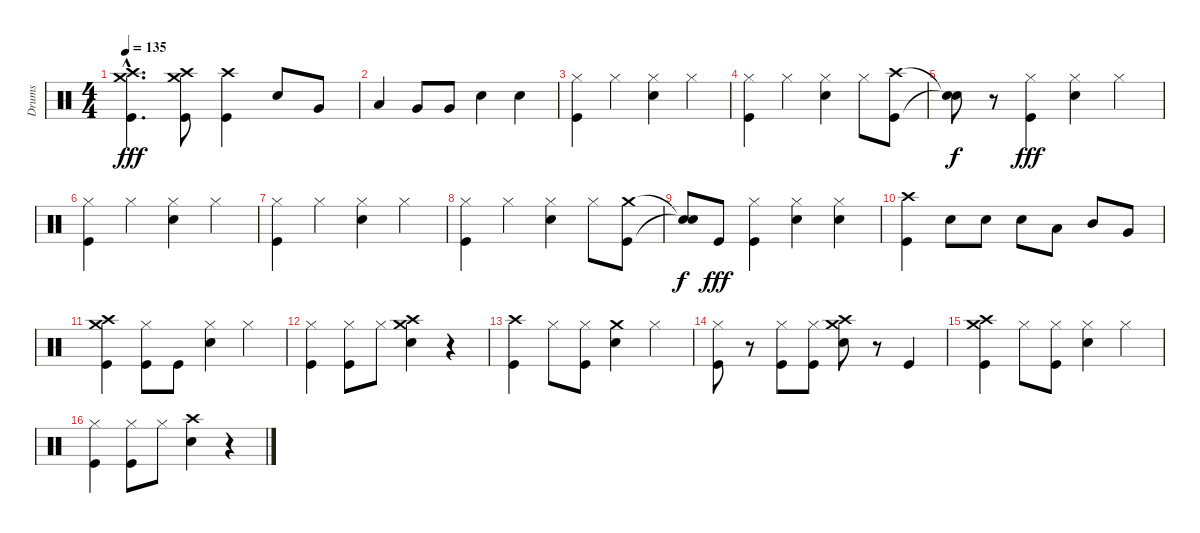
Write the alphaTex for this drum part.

\track ("Drums" "Drums") {instrument percussion}
\staff {score}
\articulation defaults
\ts (4 4)
\tempo 135
\clef neutral
\ks c
("Crash medium (hit)" "Crash high (hit)"{hac} "Kick (hit)"{hac}).4{d dy fff} ("Crash high (hit)" "Crash medium (hit)" "Kick (hit)").8 ("Crash high (hit)" "Kick (hit)").4 "Snare (hit) 2".8 "Very Low Tom (hit)".8 |
"Low Tom (hit)".4 "Very Low Tom (hit)".8 "Very Low Tom (hit)".8 "Snare (hit) 2".4 "Snare (hit) 2".4 |
("Kick (hit)" "Hi-Hat (closed)").4 "Hi-Hat (closed)".4 ("Snare (hit) 2" "Hi-Hat (closed)").4 "Hi-Hat (closed)".4 |
("Kick (hit)" "Hi-Hat (closed)").4 "Hi-Hat (closed)".4 ("Snare (hit) 2" "Hi-Hat (closed)").4 "Hi-Hat (closed)".8 ("Crash high (hit)" "Kick (hit)").8 |
("Snare (hit)"{t} "Snare (hit)"{t}).8{dy f} r.8 ("Kick (hit)" "Hi-Hat (closed)").4{dy fff} ("Snare (hit) 2" "Hi-Hat (closed)").4 "Hi-Hat (closed)".4 |
("Kick (hit)" "Hi-Hat (closed)").4 "Hi-Hat (closed)".4 ("Snare (hit) 2" "Hi-Hat (closed)").4 "Hi-Hat (closed)".4 |
("Kick (hit)" "Hi-Hat (closed)").4 "Hi-Hat (closed)".4 ("Snare (hit) 2" "Hi-Hat (closed)").4 "Hi-Hat (closed)".4 |
("Kick (hit)" "Hi-Hat (closed)").4 "Hi-Hat (closed)".4 ("Snare (hit) 2" "Hi-Hat (closed)").4 "Hi-Hat (closed)".8 ("Kick (hit)" "Crash medium (hit)").8 |
("Snare (hit)"{t} "Snare (hit)"{t}).8{dy f} "Kick (hit)".8{dy fff} ("Kick (hit)" "Hi-Hat (closed)").4 ("Snare (hit) 2" "Hi-Hat (closed)").4 ("Snare (hit) 2" "Hi-Hat (closed)").4 |
("Crash high (hit)" "Kick (hit)").4 "Snare (hit) 2".8 "Snare (hit) 2".8 "Snare (hit) 2".8 "Low Tom (hit)".8 "Mid Tom (hit)".8 "Very Low Tom (hit)".8 |
("Crash medium (hit)" "Kick (hit)" "Crash high (hit)").4 ("Hi-Hat (closed)" "Kick (hit)").8 "Kick (hit)".8 ("Hi-Hat (closed)" "Snare (hit) 2").4 "Hi-Hat (closed)".4 |
("Hi-Hat (closed)" "Kick (hit)").4 ("Hi-Hat (closed)" "Kick (hit)").8 "Hi-Hat (closed)".8 ("Crash medium (hit)" "Crash high (hit)" "Snare (hit) 2").4 r.4 |
("Crash high (hit)" "Kick (hit)").4 "Hi-Hat (closed)".8 ("Kick (hit)" "Hi-Hat (closed)").8 ("Snare (hit) 2" "Crash medium (hit)").4 "Hi-Hat (closed)".4 |
("Hi-Hat (closed)" "Kick (hit)").8 r.8 ("Kick (hit)" "Hi-Hat (closed)").8 ("Hi-Hat (closed)" "Kick (hit)").8 ("Crash medium (hit)" "Crash high (hit)" "Snare (hit) 2").8 r.8 "Kick (hit)".4 |
("Crash medium (hit)" "Kick (hit)" "Crash high (hit)").4 "Hi-Hat (closed)".8 ("Kick (hit)" "Hi-Hat (closed)").8 ("Hi-Hat (closed)" "Snare (hit) 2").4 "Hi-Hat (closed)".4 |
("Hi-Hat (closed)" "Kick (hit)").4 ("Hi-Hat (closed)" "Kick (hit)").8 "Hi-Hat (closed)".8 ("Crash high (hit)" "Snare (hit) 2").4 r.4
